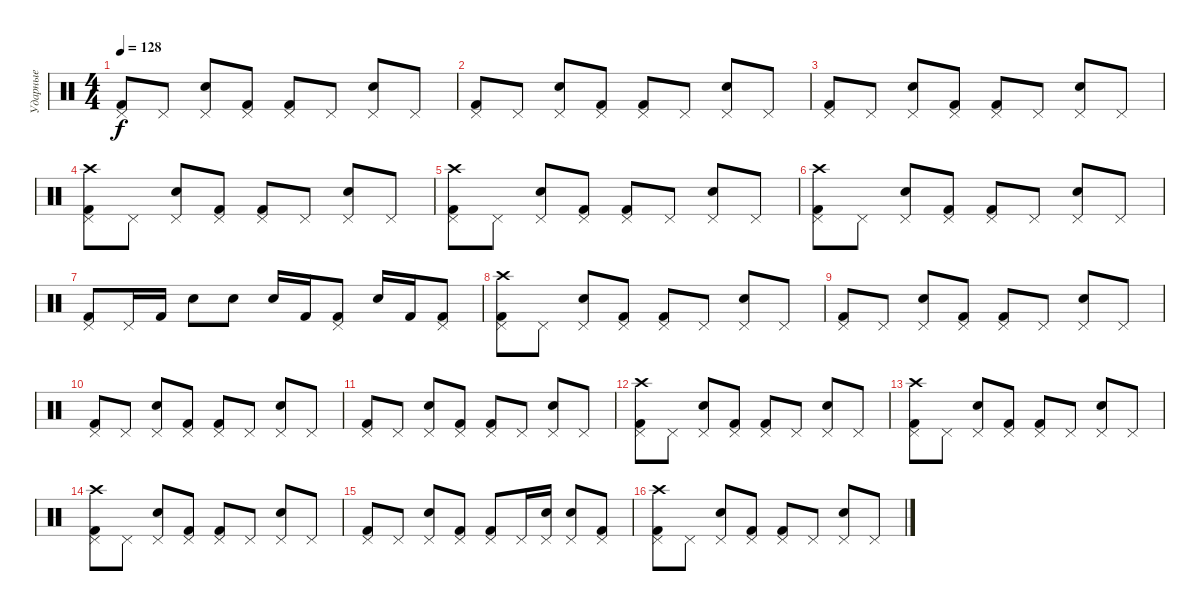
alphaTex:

\track ("Ударные" "Ударные") {instrument percussion}
\staff {score}
\articulation defaults
\ts (4 4)
\tempo 128
\clef neutral
\ks c
("Kick (hit) 2" "Pedal Hi-Hat (hit)").8{dy f} "Pedal Hi-Hat (hit)".8 ("Pedal Hi-Hat (hit)" "Electric Snare (hit)").8 ("Kick (hit) 2" "Pedal Hi-Hat (hit)").8 ("Kick (hit) 2" "Pedal Hi-Hat (hit)").8 "Pedal Hi-Hat (hit)".8 ("Pedal Hi-Hat (hit)" "Electric Snare (hit)").8 "Pedal Hi-Hat (hit)".8 |
("Kick (hit) 2" "Pedal Hi-Hat (hit)").8 "Pedal Hi-Hat (hit)".8 ("Pedal Hi-Hat (hit)" "Electric Snare (hit)").8 ("Kick (hit) 2" "Pedal Hi-Hat (hit)").8 ("Kick (hit) 2" "Pedal Hi-Hat (hit)").8 "Pedal Hi-Hat (hit)".8 ("Pedal Hi-Hat (hit)" "Electric Snare (hit)").8 "Pedal Hi-Hat (hit)".8 |
("Kick (hit) 2" "Pedal Hi-Hat (hit)").8 "Pedal Hi-Hat (hit)".8 ("Pedal Hi-Hat (hit)" "Electric Snare (hit)").8 ("Kick (hit) 2" "Pedal Hi-Hat (hit)").8 ("Kick (hit) 2" "Pedal Hi-Hat (hit)").8 "Pedal Hi-Hat (hit)".8 ("Pedal Hi-Hat (hit)" "Electric Snare (hit)").8 "Pedal Hi-Hat (hit)".8 |
("Kick (hit) 2" "Pedal Hi-Hat (hit)" "Crash high (hit)").8 "Pedal Hi-Hat (hit)".8 ("Pedal Hi-Hat (hit)" "Electric Snare (hit)").8 ("Kick (hit) 2" "Pedal Hi-Hat (hit)").8 ("Kick (hit) 2" "Pedal Hi-Hat (hit)").8 "Pedal Hi-Hat (hit)".8 ("Pedal Hi-Hat (hit)" "Electric Snare (hit)").8 "Pedal Hi-Hat (hit)".8 |
("Kick (hit) 2" "Pedal Hi-Hat (hit)" "Crash high (hit)").8 "Pedal Hi-Hat (hit)".8 ("Pedal Hi-Hat (hit)" "Electric Snare (hit)").8 ("Kick (hit) 2" "Pedal Hi-Hat (hit)").8 ("Kick (hit) 2" "Pedal Hi-Hat (hit)").8 "Pedal Hi-Hat (hit)".8 ("Pedal Hi-Hat (hit)" "Electric Snare (hit)").8 "Pedal Hi-Hat (hit)".8 |
("Kick (hit) 2" "Pedal Hi-Hat (hit)" "Crash high (hit)").8 "Pedal Hi-Hat (hit)".8 ("Pedal Hi-Hat (hit)" "Electric Snare (hit)").8 ("Kick (hit) 2" "Pedal Hi-Hat (hit)").8 ("Kick (hit) 2" "Pedal Hi-Hat (hit)").8 "Pedal Hi-Hat (hit)".8 ("Pedal Hi-Hat (hit)" "Electric Snare (hit)").8 "Pedal Hi-Hat (hit)".8 |
("Kick (hit) 2" "Pedal Hi-Hat (hit)").8 "Pedal Hi-Hat (hit)".16 "Kick (hit) 2".16 "Electric Snare (hit)".8 "Electric Snare (hit)".8 "Electric Snare (hit)".16 "Kick (hit) 2".16 ("Kick (hit) 2" "Pedal Hi-Hat (hit)").8 "Electric Snare (hit)".16 "Kick (hit) 2".16 ("Kick (hit) 2" "Pedal Hi-Hat (hit)").8 |
("Kick (hit) 2" "Pedal Hi-Hat (hit)" "Crash high (hit)").8 "Pedal Hi-Hat (hit)".8 ("Pedal Hi-Hat (hit)" "Electric Snare (hit)").8 ("Kick (hit) 2" "Pedal Hi-Hat (hit)").8 ("Kick (hit) 2" "Pedal Hi-Hat (hit)").8 "Pedal Hi-Hat (hit)".8 ("Pedal Hi-Hat (hit)" "Electric Snare (hit)").8 "Pedal Hi-Hat (hit)".8 |
("Kick (hit) 2" "Pedal Hi-Hat (hit)").8 "Pedal Hi-Hat (hit)".8 ("Pedal Hi-Hat (hit)" "Electric Snare (hit)").8 ("Kick (hit) 2" "Pedal Hi-Hat (hit)").8 ("Kick (hit) 2" "Pedal Hi-Hat (hit)").8 "Pedal Hi-Hat (hit)".8 ("Pedal Hi-Hat (hit)" "Electric Snare (hit)").8 "Pedal Hi-Hat (hit)".8 |
("Kick (hit) 2" "Pedal Hi-Hat (hit)").8 "Pedal Hi-Hat (hit)".8 ("Pedal Hi-Hat (hit)" "Electric Snare (hit)").8 ("Kick (hit) 2" "Pedal Hi-Hat (hit)").8 ("Kick (hit) 2" "Pedal Hi-Hat (hit)").8 "Pedal Hi-Hat (hit)".8 ("Pedal Hi-Hat (hit)" "Electric Snare (hit)").8 "Pedal Hi-Hat (hit)".8 |
("Kick (hit) 2" "Pedal Hi-Hat (hit)").8 "Pedal Hi-Hat (hit)".8 ("Pedal Hi-Hat (hit)" "Electric Snare (hit)").8 ("Kick (hit) 2" "Pedal Hi-Hat (hit)").8 ("Kick (hit) 2" "Pedal Hi-Hat (hit)").8 "Pedal Hi-Hat (hit)".8 ("Pedal Hi-Hat (hit)" "Electric Snare (hit)").8 "Pedal Hi-Hat (hit)".8 |
("Kick (hit) 2" "Pedal Hi-Hat (hit)" "Crash high (hit)").8 "Pedal Hi-Hat (hit)".8 ("Pedal Hi-Hat (hit)" "Electric Snare (hit)").8 ("Kick (hit) 2" "Pedal Hi-Hat (hit)").8 ("Kick (hit) 2" "Pedal Hi-Hat (hit)").8 "Pedal Hi-Hat (hit)".8 ("Pedal Hi-Hat (hit)" "Electric Snare (hit)").8 "Pedal Hi-Hat (hit)".8 |
("Kick (hit) 2" "Pedal Hi-Hat (hit)" "Crash high (hit)").8 "Pedal Hi-Hat (hit)".8 ("Pedal Hi-Hat (hit)" "Electric Snare (hit)").8 ("Kick (hit) 2" "Pedal Hi-Hat (hit)").8 ("Kick (hit) 2" "Pedal Hi-Hat (hit)").8 "Pedal Hi-Hat (hit)".8 ("Pedal Hi-Hat (hit)" "Electric Snare (hit)").8 "Pedal Hi-Hat (hit)".8 |
("Kick (hit) 2" "Pedal Hi-Hat (hit)" "Crash high (hit)").8 "Pedal Hi-Hat (hit)".8 ("Pedal Hi-Hat (hit)" "Electric Snare (hit)").8 ("Kick (hit) 2" "Pedal Hi-Hat (hit)").8 ("Kick (hit) 2" "Pedal Hi-Hat (hit)").8 "Pedal Hi-Hat (hit)".8 ("Pedal Hi-Hat (hit)" "Electric Snare (hit)").8 "Pedal Hi-Hat (hit)".8 |
("Kick (hit) 2" "Pedal Hi-Hat (hit)").8 "Pedal Hi-Hat (hit)".8 ("Pedal Hi-Hat (hit)" "Electric Snare (hit)").8 ("Kick (hit) 2" "Pedal Hi-Hat (hit)").8 ("Kick (hit) 2" "Pedal Hi-Hat (hit)").8 "Pedal Hi-Hat (hit)".16 ("Pedal Hi-Hat (hit)" "Electric Snare (hit)").16 ("Pedal Hi-Hat (hit)" "Electric Snare (hit)").8 ("Kick (hit) 2" "Pedal Hi-Hat (hit)").8 |
("Kick (hit) 2" "Pedal Hi-Hat (hit)" "Crash high (hit)").8 "Pedal Hi-Hat (hit)".8 ("Pedal Hi-Hat (hit)" "Electric Snare (hit)").8 ("Kick (hit) 2" "Pedal Hi-Hat (hit)").8 ("Kick (hit) 2" "Pedal Hi-Hat (hit)").8 "Pedal Hi-Hat (hit)".8 ("Pedal Hi-Hat (hit)" "Electric Snare (hit)").8 "Pedal Hi-Hat (hit)".8
